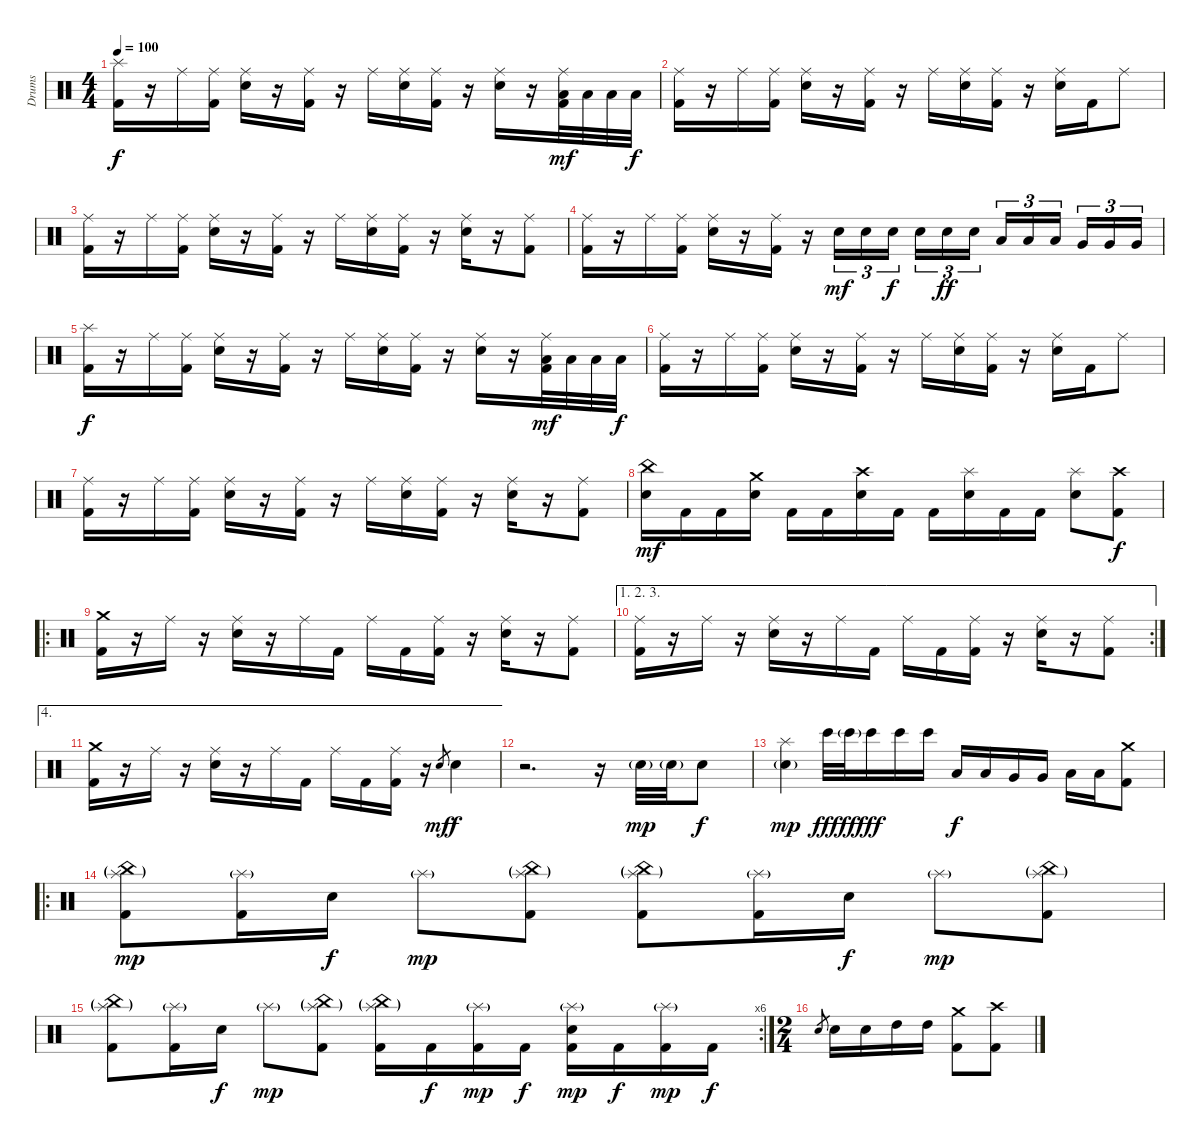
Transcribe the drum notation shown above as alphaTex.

\track ("Drums" "Drums") {instrument percussion}
\staff {score}
\articulation defaults
\ts (4 4)
\tempo 100
\clef neutral
\ks c
("Splash (hit)" "Kick (hit) 2").16{dy f} r.16 "Ride (middle)".16 ("Ride (middle)" "Kick (hit) 2").16 ("Ride (middle)" "Electric Snare (hit)").16 r.16 ("Ride (middle)" "Kick (hit) 2").16 r.16 "Ride (middle)".16 ("Ride (middle)" "Electric Snare (hit)").16 ("Ride (middle)" "Kick (hit) 2").16 r.16 ("Ride (middle)" "Electric Snare (hit)").16 r.16 ("Ride (middle)" "Low Floor Tom (hit)" "Kick (hit) 2").32{dy mf} "Low Floor Tom (hit)".32 "Low Floor Tom (hit)".32 "Low Floor Tom (hit)".32{dy f} |
("Ride (middle)" "Kick (hit) 2").16 r.16 "Ride (middle)".16 ("Ride (middle)" "Kick (hit) 2").16 ("Ride (middle)" "Electric Snare (hit)").16 r.16 ("Ride (middle)" "Kick (hit) 2").16 r.16 "Ride (middle)".16 ("Ride (middle)" "Electric Snare (hit)").16 ("Ride (middle)" "Kick (hit) 2").16 r.16 ("Ride (middle)" "Electric Snare (hit)").16 "Kick (hit) 2".16 "Ride (middle)".8 |
("Ride (middle)" "Kick (hit) 2").16 r.16 "Ride (middle)".16 ("Ride (middle)" "Kick (hit) 2").16 ("Ride (middle)" "Electric Snare (hit)").16 r.16 ("Ride (middle)" "Kick (hit) 2").16 r.16 "Ride (middle)".16 ("Ride (middle)" "Electric Snare (hit)").16 ("Ride (middle)" "Kick (hit) 2").16 r.16 ("Ride (middle)" "Electric Snare (hit)").16 r.16 ("Ride (middle)" "Kick (hit) 2").8 |
("Ride (middle)" "Kick (hit) 2").16 r.16 "Ride (middle)".16 ("Ride (middle)" "Kick (hit) 2").16 ("Ride (middle)" "Electric Snare (hit)").16 r.16 ("Ride (middle)" "Kick (hit) 2").16 r.16 "Electric Snare (hit)".16{tu (3 2) dy mf} "Electric Snare (hit)".16{tu (3 2)} "Electric Snare (hit)".16{tu (3 2) dy f beam splitsecondary} "Electric Snare (hit)".16{tu (3 2)} "Electric Snare (hit)".16{tu (3 2) dy ff} "Electric Snare (hit)".16{tu (3 2)} "Low Tom (hit)".16{tu (3 2)} "Low Tom (hit)".16{tu (3 2)} "Low Tom (hit)".16{tu (3 2) beam splitsecondary} "Very Low Tom (hit)".16{tu (3 2)} "Very Low Tom (hit)".16{tu (3 2)} "Very Low Tom (hit)".16{tu (3 2)} |
("Splash (hit)" "Kick (hit) 2").16{dy f} r.16 "Ride (middle)".16 ("Ride (middle)" "Kick (hit) 2").16 ("Ride (middle)" "Electric Snare (hit)").16 r.16 ("Ride (middle)" "Kick (hit) 2").16 r.16 "Ride (middle)".16 ("Ride (middle)" "Electric Snare (hit)").16 ("Ride (middle)" "Kick (hit) 2").16 r.16 ("Ride (middle)" "Electric Snare (hit)").16 r.16 ("Ride (middle)" "Low Floor Tom (hit)" "Kick (hit) 2").32{dy mf} "Low Floor Tom (hit)".32 "Low Floor Tom (hit)".32 "Low Floor Tom (hit)".32{dy f} |
("Ride (middle)" "Kick (hit) 2").16 r.16 "Ride (middle)".16 ("Ride (middle)" "Kick (hit) 2").16 ("Ride (middle)" "Electric Snare (hit)").16 r.16 ("Ride (middle)" "Kick (hit) 2").16 r.16 "Ride (middle)".16 ("Ride (middle)" "Electric Snare (hit)").16 ("Ride (middle)" "Kick (hit) 2").16 r.16 ("Ride (middle)" "Electric Snare (hit)").16 "Kick (hit) 2".16 "Ride (middle)".8 |
("Ride (middle)" "Kick (hit) 2").16 r.16 "Ride (middle)".16 ("Ride (middle)" "Kick (hit) 2").16 ("Ride (middle)" "Electric Snare (hit)").16 r.16 ("Ride (middle)" "Kick (hit) 2").16 r.16 "Ride (middle)".16 ("Ride (middle)" "Electric Snare (hit)").16 ("Ride (middle)" "Kick (hit) 2").16 r.16 ("Ride (middle)" "Electric Snare (hit)").16 r.16 ("Ride (middle)" "Kick (hit) 2").8 |
("China (hit)" "Electric Snare (hit)").16{dy mf} "Kick (hit) 2".16 "Kick (hit) 2".16 ("Crash medium (hit)" "Electric Snare (hit)").16 "Kick (hit) 2".16 "Kick (hit) 2".16 ("Crash high (hit)" "Electric Snare (hit)").16 "Kick (hit) 2".16 "Kick (hit) 2".16 ("Splash (hit)" "Electric Snare (hit)").16 "Kick (hit) 2".16 "Kick (hit) 2".16 ("Splash (hit)" "Electric Snare (hit)").8 ("Crash high (hit)" "Kick (hit) 2").8{dy f} |
\ro
("Crash medium (hit)" "Kick (hit) 2").16 r.16 "Ride (middle)".16 r.16 ("Ride (middle)" "Electric Snare (hit)").16 r.16 "Ride (middle)".16 "Kick (hit) 2".16 "Ride (middle)".16 "Kick (hit) 2".16 ("Ride (middle)" "Kick (hit) 2").16 r.16 ("Ride (middle)" "Electric Snare (hit)").16 r.16 ("Ride (middle)" "Kick (hit) 2").8 |
\ae (1 2 3)
\rc 2
("Ride (middle)" "Kick (hit) 2").16 r.16 "Ride (middle)".16 r.16 ("Ride (middle)" "Electric Snare (hit)").16 r.16 "Ride (middle)".16 "Kick (hit) 2".16 "Ride (middle)".16 "Kick (hit) 2".16 ("Ride (middle)" "Kick (hit) 2").16 r.16 ("Ride (middle)" "Electric Snare (hit)").16 r.16 ("Ride (middle)" "Kick (hit) 2").8 |
\ae 4
("Crash medium (hit)" "Kick (hit) 2").16 r.16 "Ride (middle)".16 r.16 ("Ride (middle)" "Electric Snare (hit)").16 r.16 "Ride (middle)".16 "Kick (hit) 2".16 "Ride (middle)".16 "Kick (hit) 2".16 ("Ride (middle)" "Kick (hit) 2").16 r.16 "Electric Snare (hit)".8{gr dy mf} "Electric Snare (hit)".4{dy f} |
r.2{d} r.16 "Electric Snare (hit)"{g}.32{dy mp} "Electric Snare (hit)"{g}.32 "Electric Snare (hit)".8{dy f} |
("Splash (hit)" "Electric Snare (hit)"{g}).4{dy mp} "Bongo High (hit)".32{dy fff} "Bongo High (hit)"{g}.32{dy ff} "Bongo High (hit)".16{dy fff} "Bongo High (hit)".16 "Bongo High (hit)".16 "Low Tom (hit)".16{dy f} "Low Tom (hit)".16 "Very Low Tom (hit)".16 "Very Low Tom (hit)".16 "Low Floor Tom (hit)".16 "Low Floor Tom (hit)".16 ("Crash medium (hit)" "Kick (hit) 2").8 |
\ro
("Splash (hit)"{g} "China (hit)"{g} "Kick (hit) 2").8{dy mp} ("Splash (hit)"{g} "Kick (hit) 2").16 "Electric Snare (hit)".16{dy f} "Splash (hit)"{g}.8{dy mp} ("Splash (hit)"{g} "China (hit)"{g} "Kick (hit) 2").8 ("Splash (hit)"{g} "China (hit)"{g} "Kick (hit) 2").8 ("Splash (hit)"{g} "Kick (hit) 2").16 "Electric Snare (hit)".16{dy f} "Splash (hit)"{g}.8{dy mp} ("Splash (hit)"{g} "China (hit)"{g} "Kick (hit) 2").8 |
\rc 6
("Splash (hit)"{g} "China (hit)"{g} "Kick (hit) 2").8 ("Splash (hit)"{g} "Kick (hit) 2").16 "Electric Snare (hit)".16{dy f} "Splash (hit)"{g}.8{dy mp} ("Splash (hit)"{g} "China (hit)"{g} "Kick (hit) 2").8 ("Splash (hit)"{g} "China (hit)"{g} "Kick (hit) 2").16 "Kick (hit) 2".16{dy f} ("Splash (hit)"{g} "Kick (hit) 2").16{dy mp} "Kick (hit) 2".16{dy f} ("Splash (hit)"{g} "Electric Snare (hit)" "Kick (hit) 2").16{dy mp} "Kick (hit) 2".16{dy f} ("Splash (hit)"{g} "Kick (hit) 2").16{dy mp} "Kick (hit) 2".16{dy f} |
\ts (2 4)
"Electric Snare (hit)".8{gr} "Electric Snare (hit)".16 "Electric Snare (hit)".16 "High Tom (hit)".16 "High Tom (hit)".16 ("Crash medium (hit)" "Kick (hit) 2").8 ("Crash high (hit)" "Kick (hit) 2").8
